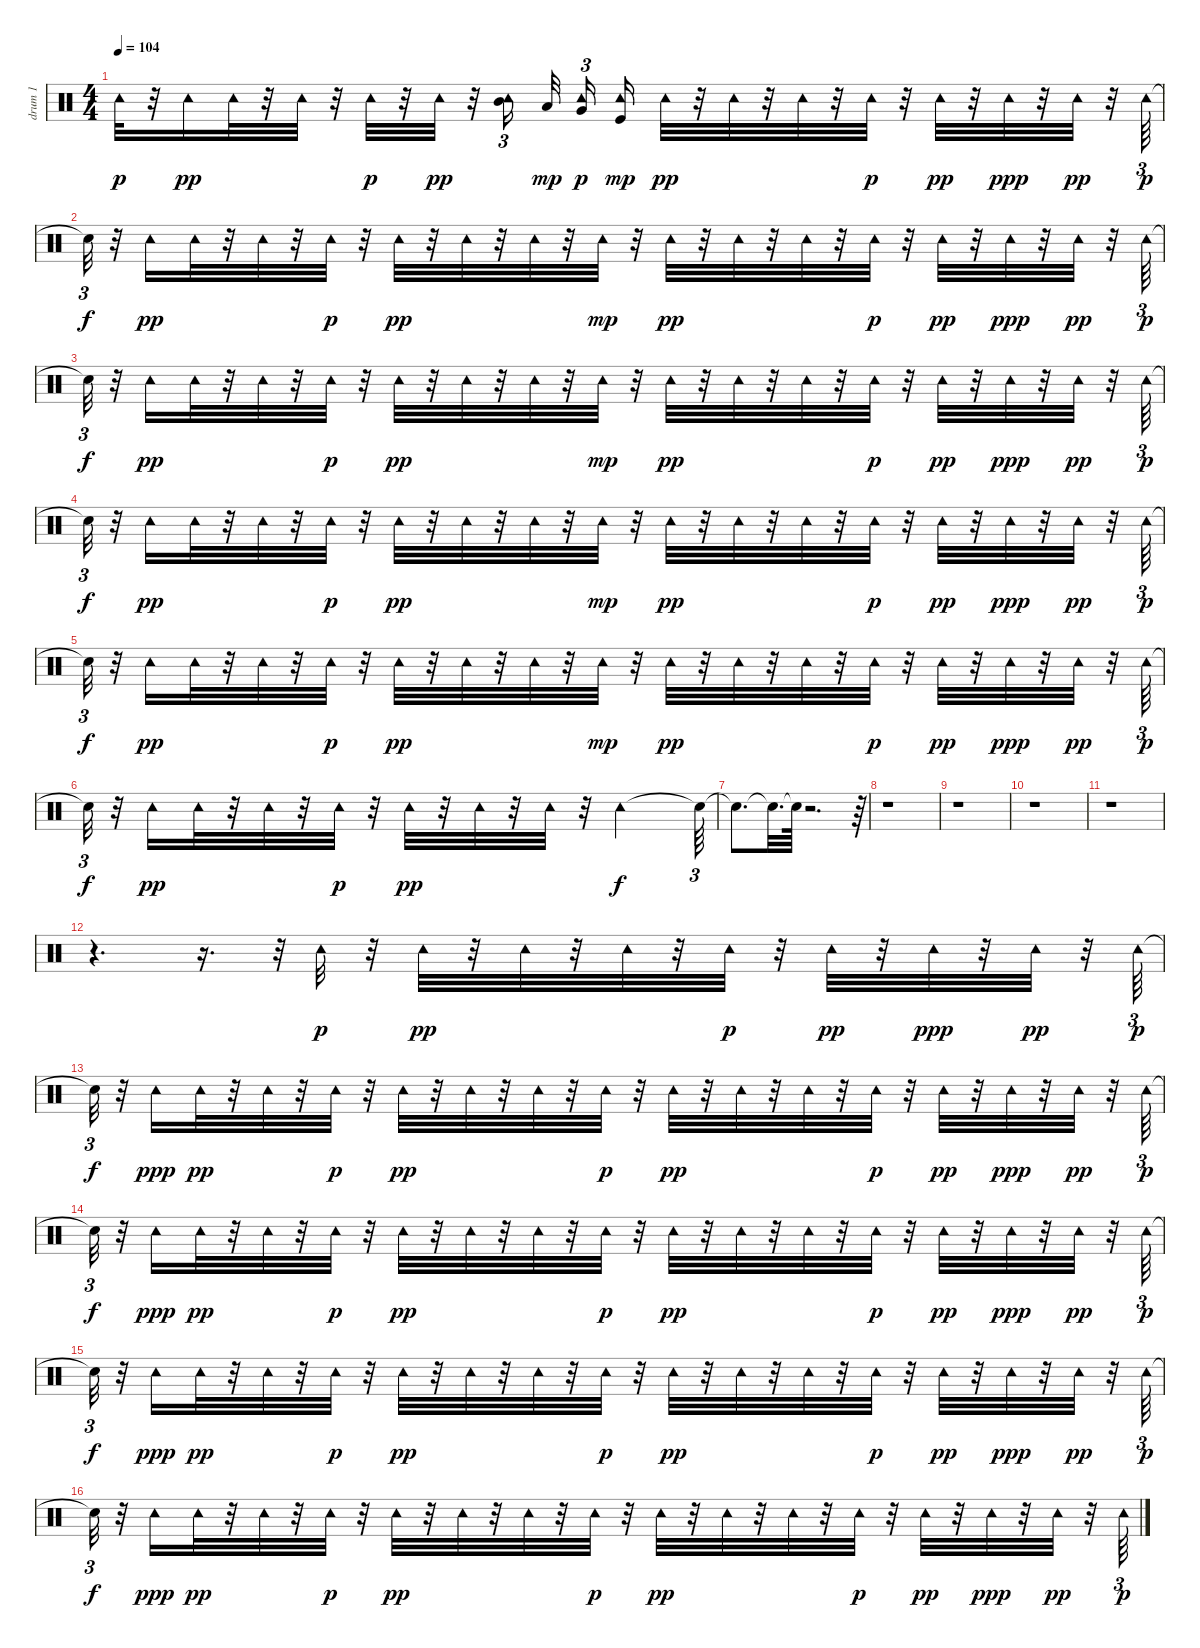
\track ("drum 1" "drum 1") {instrument percussion}
\staff {score}
\articulation defaults
\ts (4 4)
\tempo 104
\clef neutral
\ks c "Tambourine (hit)".32{dy p}
r.32 "Tambourine (hit)".16{dy pp} "Tambourine (hit)".32 r.32 "Tambourine (hit)".32 r.32 "Tambourine (hit)".32{dy p} r.32 "Tambourine (hit)".32{dy pp} r.32 ("Mid Tom (hit)" "Tambourine (hit)").16{tu (3 2) beam splitsecondary} "Low Tom (hit)".32{dy mp beam splitsecondary} ("Tambourine (hit)" "Very Low Tom (hit)").16{tu (3 2) dy p} ("Kick (hit)" "Tambourine (hit)").16{dy mp} "Tambourine (hit)".32{dy pp} r.32 "Tambourine (hit)".32 r.32 "Tambourine (hit)".32 r.32 "Tambourine (hit)".32{dy p} r.32 "Tambourine (hit)".32{dy pp} r.32 "Tambourine (hit)".32{dy ppp} r.32 "Tambourine (hit)".32{dy pp} r.32 "Tambourine (hit)".64{tu (3 2) dy p} |
"Snare (hit)"{t}.32{tu (3 2) dy f} r.32 "Tambourine (hit)".16{dy pp} "Tambourine (hit)".32 r.32 "Tambourine (hit)".32 r.32 "Tambourine (hit)".32{dy p} r.32 "Tambourine (hit)".32{dy pp} r.32 "Tambourine (hit)".32 r.32 "Tambourine (hit)".32 r.32 "Tambourine (hit)".32{dy mp} r.32 "Tambourine (hit)".32{dy pp} r.32 "Tambourine (hit)".32 r.32 "Tambourine (hit)".32 r.32 "Tambourine (hit)".32{dy p} r.32 "Tambourine (hit)".32{dy pp} r.32 "Tambourine (hit)".32{dy ppp} r.32 "Tambourine (hit)".32{dy pp} r.32 "Tambourine (hit)".64{tu (3 2) dy p} |
"Snare (hit)"{t}.32{tu (3 2) dy f} r.32 "Tambourine (hit)".16{dy pp} "Tambourine (hit)".32 r.32 "Tambourine (hit)".32 r.32 "Tambourine (hit)".32{dy p} r.32 "Tambourine (hit)".32{dy pp} r.32 "Tambourine (hit)".32 r.32 "Tambourine (hit)".32 r.32 "Tambourine (hit)".32{dy mp} r.32 "Tambourine (hit)".32{dy pp} r.32 "Tambourine (hit)".32 r.32 "Tambourine (hit)".32 r.32 "Tambourine (hit)".32{dy p} r.32 "Tambourine (hit)".32{dy pp} r.32 "Tambourine (hit)".32{dy ppp} r.32 "Tambourine (hit)".32{dy pp} r.32 "Tambourine (hit)".64{tu (3 2) dy p} |
"Snare (hit)"{t}.32{tu (3 2) dy f} r.32 "Tambourine (hit)".16{dy pp} "Tambourine (hit)".32 r.32 "Tambourine (hit)".32 r.32 "Tambourine (hit)".32{dy p} r.32 "Tambourine (hit)".32{dy pp} r.32 "Tambourine (hit)".32 r.32 "Tambourine (hit)".32 r.32 "Tambourine (hit)".32{dy mp} r.32 "Tambourine (hit)".32{dy pp} r.32 "Tambourine (hit)".32 r.32 "Tambourine (hit)".32 r.32 "Tambourine (hit)".32{dy p} r.32 "Tambourine (hit)".32{dy pp} r.32 "Tambourine (hit)".32{dy ppp} r.32 "Tambourine (hit)".32{dy pp} r.32 "Tambourine (hit)".64{tu (3 2) dy p} |
"Snare (hit)"{t}.32{tu (3 2) dy f} r.32 "Tambourine (hit)".16{dy pp} "Tambourine (hit)".32 r.32 "Tambourine (hit)".32 r.32 "Tambourine (hit)".32{dy p} r.32 "Tambourine (hit)".32{dy pp} r.32 "Tambourine (hit)".32 r.32 "Tambourine (hit)".32 r.32 "Tambourine (hit)".32{dy mp} r.32 "Tambourine (hit)".32{dy pp} r.32 "Tambourine (hit)".32 r.32 "Tambourine (hit)".32 r.32 "Tambourine (hit)".32{dy p} r.32 "Tambourine (hit)".32{dy pp} r.32 "Tambourine (hit)".32{dy ppp} r.32 "Tambourine (hit)".32{dy pp} r.32 "Tambourine (hit)".64{tu (3 2) dy p} |
"Snare (hit)"{t}.32{tu (3 2) dy f} r.32 "Tambourine (hit)".16{dy pp} "Tambourine (hit)".32 r.32 "Tambourine (hit)".32 r.32 "Tambourine (hit)".32{dy p} r.32 "Tambourine (hit)".32{dy pp} r.32 "Tambourine (hit)".32 r.32 "Tambourine (hit)".32 r.32 "Tambourine (hit)".2{dy f} "Snare (hit)"{t}.64{tu (3 2)} |
"Snare (hit)"{t}.8{d} "Snare (hit)"{t}.32{d} "Snare (hit)"{t}.64 r.2{d} r.64{tu (3 2)} |
r.1 |
r.1 |
r.1 |
r.1 |
r.4{d} r.16{d} r.32{tu (3 2)} "Tambourine (hit)".32{dy p} r.32 "Tambourine (hit)".32{dy pp} r.32 "Tambourine (hit)".32 r.32 "Tambourine (hit)".32 r.32 "Tambourine (hit)".32{dy p} r.32 "Tambourine (hit)".32{dy pp} r.32 "Tambourine (hit)".32{dy ppp} r.32 "Tambourine (hit)".32{dy pp} r.32 "Tambourine (hit)".64{tu (3 2) dy p} |
"Snare (hit)"{t}.32{tu (3 2) dy f} r.32 "Tambourine (hit)".16{dy ppp} "Tambourine (hit)".32{dy pp} r.32 "Tambourine (hit)".32 r.32 "Tambourine (hit)".32{dy p} r.32 "Tambourine (hit)".32{dy pp} r.32 "Tambourine (hit)".32 r.32 "Tambourine (hit)".32 r.32 "Tambourine (hit)".32{dy p} r.32 "Tambourine (hit)".32{dy pp} r.32 "Tambourine (hit)".32 r.32 "Tambourine (hit)".32 r.32 "Tambourine (hit)".32{dy p} r.32 "Tambourine (hit)".32{dy pp} r.32 "Tambourine (hit)".32{dy ppp} r.32 "Tambourine (hit)".32{dy pp} r.32 "Tambourine (hit)".64{tu (3 2) dy p} |
"Snare (hit)"{t}.32{tu (3 2) dy f} r.32 "Tambourine (hit)".16{dy ppp} "Tambourine (hit)".32{dy pp} r.32 "Tambourine (hit)".32 r.32 "Tambourine (hit)".32{dy p} r.32 "Tambourine (hit)".32{dy pp} r.32 "Tambourine (hit)".32 r.32 "Tambourine (hit)".32 r.32 "Tambourine (hit)".32{dy p} r.32 "Tambourine (hit)".32{dy pp} r.32 "Tambourine (hit)".32 r.32 "Tambourine (hit)".32 r.32 "Tambourine (hit)".32{dy p} r.32 "Tambourine (hit)".32{dy pp} r.32 "Tambourine (hit)".32{dy ppp} r.32 "Tambourine (hit)".32{dy pp} r.32 "Tambourine (hit)".64{tu (3 2) dy p} |
"Snare (hit)"{t}.32{tu (3 2) dy f} r.32 "Tambourine (hit)".16{dy ppp} "Tambourine (hit)".32{dy pp} r.32 "Tambourine (hit)".32 r.32 "Tambourine (hit)".32{dy p} r.32 "Tambourine (hit)".32{dy pp} r.32 "Tambourine (hit)".32 r.32 "Tambourine (hit)".32 r.32 "Tambourine (hit)".32{dy p} r.32 "Tambourine (hit)".32{dy pp} r.32 "Tambourine (hit)".32 r.32 "Tambourine (hit)".32 r.32 "Tambourine (hit)".32{dy p} r.32 "Tambourine (hit)".32{dy pp} r.32 "Tambourine (hit)".32{dy ppp} r.32 "Tambourine (hit)".32{dy pp} r.32 "Tambourine (hit)".64{tu (3 2) dy p} |
"Snare (hit)"{t}.32{tu (3 2) dy f} r.32 "Tambourine (hit)".16{dy ppp} "Tambourine (hit)".32{dy pp} r.32 "Tambourine (hit)".32 r.32 "Tambourine (hit)".32{dy p} r.32 "Tambourine (hit)".32{dy pp} r.32 "Tambourine (hit)".32 r.32 "Tambourine (hit)".32 r.32 "Tambourine (hit)".32{dy p} r.32 "Tambourine (hit)".32{dy pp} r.32 "Tambourine (hit)".32 r.32 "Tambourine (hit)".32 r.32 "Tambourine (hit)".32{dy p} r.32 "Tambourine (hit)".32{dy pp} r.32 "Tambourine (hit)".32{dy ppp} r.32 "Tambourine (hit)".32{dy pp} r.32 "Tambourine (hit)".64{tu (3 2) dy p}
